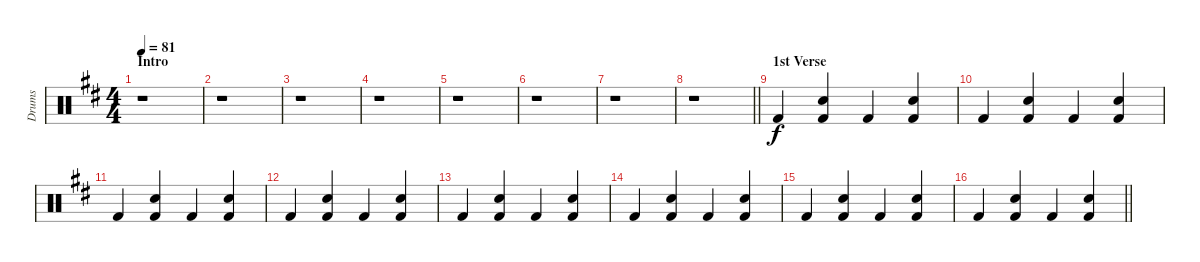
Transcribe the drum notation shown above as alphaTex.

\track ("Drums" "Drums") {instrument percussion}
\staff {score}
\articulation defaults
\ts (4 4)
\section ("" "Intro")
\tempo 81
\clef neutral
\ks d
r.1{dy f} |
r.1 |
r.1 |
r.1 |
r.1 |
r.1 |
r.1 |
\barLineRight lightlight
r.1 |
\section ("" "1st Verse")
"Kick (hit) 2".4 ("Snare (hit) 2" "Kick (hit) 2").4 "Kick (hit) 2".4 ("Snare (hit) 2" "Kick (hit) 2").4 |
"Kick (hit) 2".4 ("Snare (hit) 2" "Kick (hit) 2").4 "Kick (hit) 2".4 ("Snare (hit) 2" "Kick (hit) 2").4 |
"Kick (hit) 2".4 ("Snare (hit) 2" "Kick (hit) 2").4 "Kick (hit) 2".4 ("Snare (hit) 2" "Kick (hit) 2").4 |
"Kick (hit) 2".4 ("Snare (hit) 2" "Kick (hit) 2").4 "Kick (hit) 2".4 ("Snare (hit) 2" "Kick (hit) 2").4 |
"Kick (hit) 2".4 ("Snare (hit) 2" "Kick (hit) 2").4 "Kick (hit) 2".4 ("Snare (hit) 2" "Kick (hit) 2").4 |
"Kick (hit) 2".4 ("Snare (hit) 2" "Kick (hit) 2").4 "Kick (hit) 2".4 ("Snare (hit) 2" "Kick (hit) 2").4 |
"Kick (hit) 2".4 ("Snare (hit) 2" "Kick (hit) 2").4 "Kick (hit) 2".4 ("Snare (hit) 2" "Kick (hit) 2").4 |
\barLineRight lightlight "Kick (hit) 2".4
("Snare (hit) 2" "Kick (hit) 2").4 "Kick (hit) 2".4 ("Snare (hit) 2" "Kick (hit) 2").4
